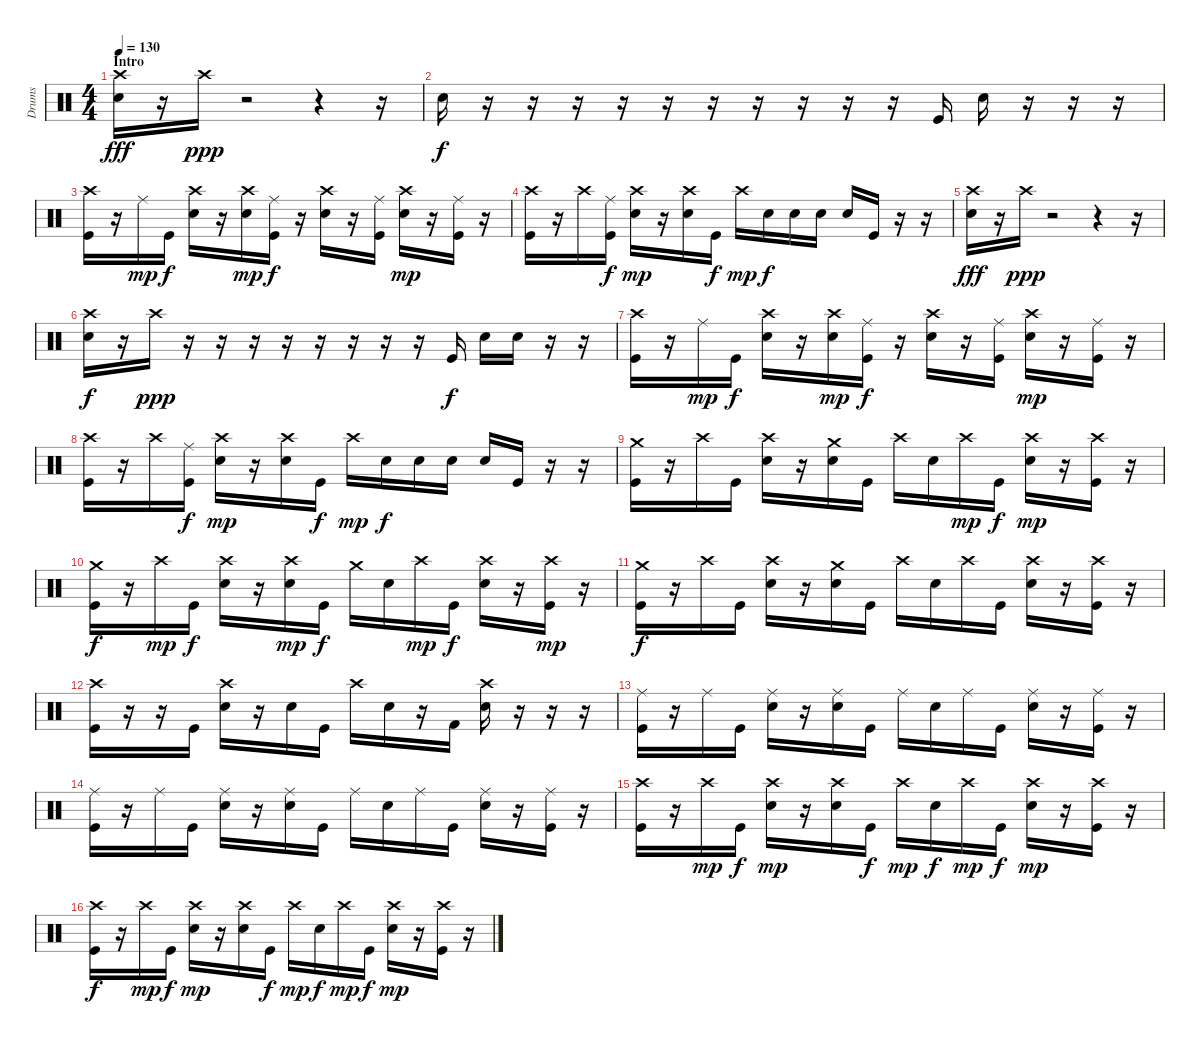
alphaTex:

\track ("Drums" "Drums") {instrument percussion}
\staff {score}
\articulation defaults
\ts (4 4)
\section ("" "Intro")
\tempo 130
\clef neutral
\ks c
("Crash high (hit)" "Electric Snare (hit)").16{dy fff} r.16 "Crash high (hit)".16{dy ppp} r.2 r.4 r.16 |
"Electric Snare (hit)".16{dy f} r.16 r.16 r.16 r.16 r.16 r.16 r.16 r.16 r.16 r.16 "Kick (hit)".16 "Electric Snare (hit)".16 r.16 r.16 r.16 |
("Crash high (hit)" "Kick (hit)").16 r.16 "Ride (middle)".16{dy mp} "Kick (hit)".16{dy f} ("Crash high (hit)" "Electric Snare (hit)").16 r.16 ("Crash high (hit)" "Electric Snare (hit)").16{dy mp} ("Ride (middle)" "Kick (hit)").16{dy f} r.16 ("Crash high (hit)" "Electric Snare (hit)").16 r.16 ("Ride (middle)" "Kick (hit)").16 ("Crash high (hit)" "Electric Snare (hit)").16{dy mp} r.16 ("Ride (middle)" "Kick (hit)").16 r.16 |
("Crash high (hit)" "Kick (hit)").16 r.16 "Crash high (hit)".16 ("Ride (middle)" "Kick (hit)").16{dy f} ("Crash high (hit)" "Electric Snare (hit)").16{dy mp} r.16 ("Crash high (hit)" "Electric Snare (hit)").16 "Kick (hit)".16{dy f} "Crash high (hit)".16{dy mp} "Electric Snare (hit)".16{dy f} "Electric Snare (hit)".16 "Electric Snare (hit)".16 "Electric Snare (hit)".16 "Kick (hit)".16 r.16 r.16 |
("Crash high (hit)" "Electric Snare (hit)").16{dy fff} r.16 "Crash high (hit)".16{dy ppp} r.2 r.4 r.16 |
("Crash high (hit)" "Electric Snare (hit)").16{dy f} r.16 "Crash high (hit)".16{dy ppp} r.16 r.16 r.16 r.16 r.16 r.16 r.16 r.16 "Kick (hit)".16{dy f} "Electric Snare (hit)".16 "Electric Snare (hit)".16 r.16 r.16 |
("Crash high (hit)" "Kick (hit)").16 r.16 "Ride (middle)".16{dy mp} "Kick (hit)".16{dy f} ("Crash high (hit)" "Electric Snare (hit)").16 r.16 ("Crash high (hit)" "Electric Snare (hit)").16{dy mp} ("Ride (middle)" "Kick (hit)").16{dy f} r.16 ("Crash high (hit)" "Electric Snare (hit)").16 r.16 ("Ride (middle)" "Kick (hit)").16 ("Crash high (hit)" "Electric Snare (hit)").16{dy mp} r.16 ("Ride (middle)" "Kick (hit)").16 r.16 |
("Crash high (hit)" "Kick (hit)").16 r.16 "Crash high (hit)".16 ("Ride (middle)" "Kick (hit)").16{dy f} ("Crash high (hit)" "Electric Snare (hit)").16{dy mp} r.16 ("Crash high (hit)" "Electric Snare (hit)").16 "Kick (hit)".16{dy f} "Crash high (hit)".16{dy mp} "Electric Snare (hit)".16{dy f} "Electric Snare (hit)".16 "Electric Snare (hit)".16 "Electric Snare (hit)".16 "Kick (hit)".16 r.16 r.16 |
("Crash medium (hit)" "Kick (hit)").16 r.16 "Crash high (hit)".16 "Kick (hit)".16 ("Crash high (hit)" "Electric Snare (hit)").16 r.16 ("Crash medium (hit)" "Electric Snare (hit)").16 "Kick (hit)".16 "Crash high (hit)".16 "Electric Snare (hit)".16 "Crash high (hit)".16{dy mp} "Kick (hit)".16{dy f} ("Crash high (hit)" "Electric Snare (hit)").16{dy mp} r.16 ("Crash high (hit)" "Kick (hit)").16 r.16 |
("Crash medium (hit)" "Kick (hit)").16{dy f} r.16 "Crash high (hit)".16{dy mp} "Kick (hit)".16{dy f} ("Crash high (hit)" "Electric Snare (hit)").16 r.16 ("Crash high (hit)" "Electric Snare (hit)").16{dy mp} "Kick (hit)".16{dy f} "Crash medium (hit)".16 "Electric Snare (hit)".16 "Crash high (hit)".16{dy mp} "Kick (hit)".16{dy f} ("Crash high (hit)" "Electric Snare (hit)").16 r.16 ("Crash high (hit)" "Kick (hit)").16{dy mp} r.16 |
("Crash medium (hit)" "Kick (hit)").16{dy f} r.16 "Crash high (hit)".16 "Kick (hit)".16 ("Crash high (hit)" "Electric Snare (hit)").16 r.16 ("Crash medium (hit)" "Electric Snare (hit)").16 "Kick (hit)".16 "Crash high (hit)".16 "Electric Snare (hit)".16 "Crash high (hit)".16 "Kick (hit)".16 ("Crash high (hit)" "Electric Snare (hit)").16 r.16 ("Crash high (hit)" "Kick (hit)").16 r.16 |
("Crash high (hit)" "Kick (hit)").16 r.16 r.16 "Kick (hit)".16 ("Crash high (hit)" "Electric Snare (hit)").16 r.16 "Electric Snare (hit)".16 "Kick (hit)".16 "Crash high (hit)".16 "Electric Snare (hit)".16 r.16 "Kick (hit) 2".16 ("Crash high (hit)" "Electric Snare (hit)").16 r.16 r.16 r.16 |
("Ride (middle)" "Kick (hit)").16 r.16 "Ride (middle)".16 "Kick (hit)".16 ("Ride (middle)" "Electric Snare (hit)").16 r.16 ("Ride (middle)" "Electric Snare (hit)").16 "Kick (hit)".16 "Ride (middle)".16 "Electric Snare (hit)".16 "Ride (middle)".16 "Kick (hit)".16 ("Ride (middle)" "Electric Snare (hit)").16 r.16 ("Ride (middle)" "Kick (hit)").16 r.16 |
("Ride (middle)" "Kick (hit)").16 r.16 "Ride (middle)".16 "Kick (hit)".16 ("Ride (middle)" "Electric Snare (hit)").16 r.16 ("Ride (middle)" "Electric Snare (hit)").16 "Kick (hit)".16 "Ride (middle)".16 "Electric Snare (hit)".16 "Ride (middle)".16 "Kick (hit)".16 ("Ride (middle)" "Electric Snare (hit)").16 r.16 ("Ride (middle)" "Kick (hit)").16 r.16 |
("Crash high (hit)" "Kick (hit)").16 r.16 "Crash high (hit)".16{dy mp} "Kick (hit)".16{dy f} ("Crash high (hit)" "Electric Snare (hit)").16{dy mp} r.16 ("Crash high (hit)" "Electric Snare (hit)").16 "Kick (hit)".16{dy f} "Crash high (hit)".16{dy mp} "Electric Snare (hit)".16{dy f} "Crash high (hit)".16{dy mp} "Kick (hit)".16{dy f} ("Crash high (hit)" "Electric Snare (hit)").16{dy mp} r.16 ("Crash high (hit)" "Kick (hit)").16 r.16 |
("Crash high (hit)" "Kick (hit)").16{dy f} r.16 "Crash high (hit)".16{dy mp} "Kick (hit)".16{dy f} ("Crash high (hit)" "Electric Snare (hit)").16{dy mp} r.16 ("Crash high (hit)" "Electric Snare (hit)").16 "Kick (hit)".16{dy f} "Crash high (hit)".16{dy mp} "Electric Snare (hit)".16{dy f} "Crash high (hit)".16{dy mp} "Kick (hit)".16{dy f} ("Crash high (hit)" "Electric Snare (hit)").16{dy mp} r.16 ("Crash high (hit)" "Kick (hit)").16 r.16
